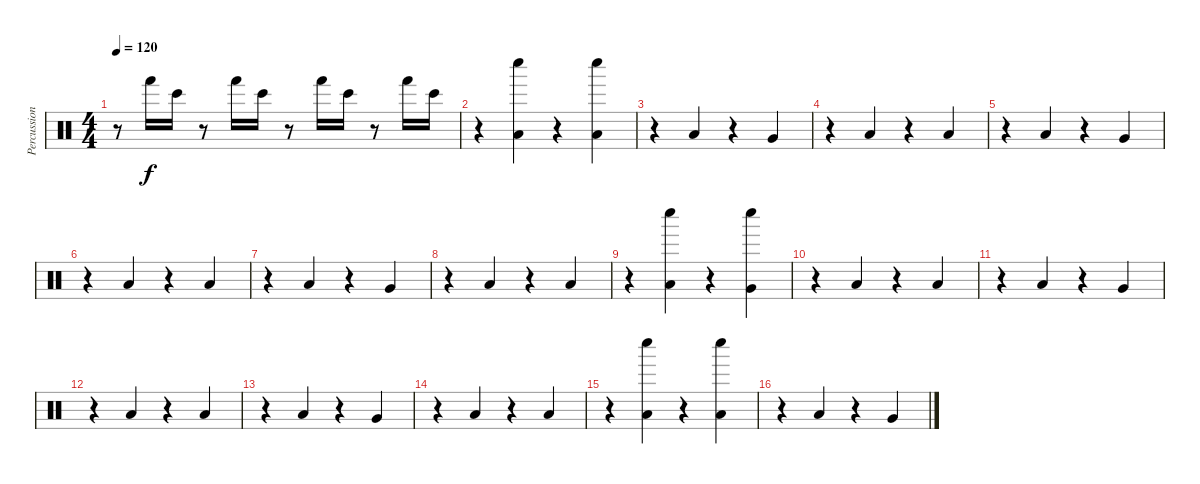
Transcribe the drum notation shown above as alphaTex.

\track ("Percussion" "Percussion") {instrument percussion}
\staff {score}
\articulation defaults
\ts (4 4)
\tempo 120
\clef neutral
\ks c
r.8{dy f} "Hand (hit)".16 "Bongo High (hit)".16 r.8 "Hand (hit)".16 "Bongo High (hit)".16 r.8 "Hand (hit)".16 "Bongo High (hit)".16 r.8 "Hand (hit)".16 "Bongo High (hit)".16 |
r.4 ("Low Floor Tom (hit)" "Whistle low (hit)").4 r.4 ("Low Floor Tom (hit)" "Whistle low (hit)").4 |
r.4 "Low Floor Tom (hit)".4 r.4 "Very Low Tom (hit)".4 |
r.4 "Low Floor Tom (hit)".4 r.4 "Low Floor Tom (hit)".4 |
r.4 "Low Floor Tom (hit)".4 r.4 "Very Low Tom (hit)".4 |
r.4 "Low Floor Tom (hit)".4 r.4 "Low Floor Tom (hit)".4 |
r.4 "Low Floor Tom (hit)".4 r.4 "Very Low Tom (hit)".4 |
r.4 "Low Floor Tom (hit)".4 r.4 "Low Floor Tom (hit)".4 |
r.4 ("Low Floor Tom (hit)" "Whistle low (hit)").4 r.4 ("Very Low Tom (hit)" "Whistle low (hit)").4 |
r.4 "Low Floor Tom (hit)".4 r.4 "Low Floor Tom (hit)".4 |
r.4 "Low Floor Tom (hit)".4 r.4 "Very Low Tom (hit)".4 |
r.4 "Low Floor Tom (hit)".4 r.4 "Low Floor Tom (hit)".4 |
r.4 "Low Floor Tom (hit)".4 r.4 "Very Low Tom (hit)".4 |
r.4 "Low Floor Tom (hit)".4 r.4 "Low Floor Tom (hit)".4 |
r.4 ("Low Floor Tom (hit)" "Whistle low (hit)").4 r.4 ("Low Floor Tom (hit)" "Whistle low (hit)").4 |
r.4 "Low Floor Tom (hit)".4 r.4 "Very Low Tom (hit)".4
